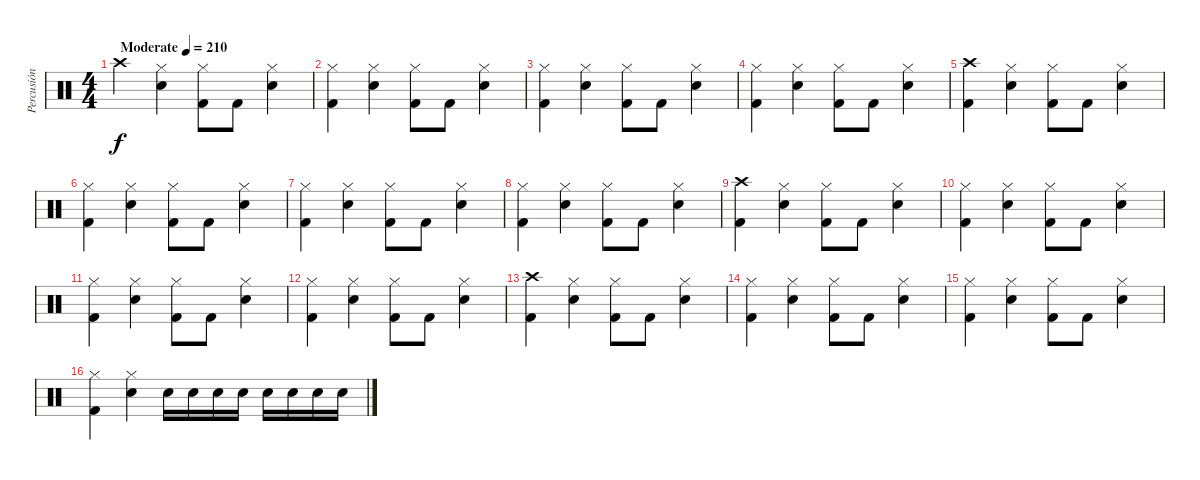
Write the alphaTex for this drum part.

\track ("Percusión" "Percusión") {instrument percussion}
\staff {score}
\articulation defaults
\ts (4 4)
\tempo (210 "Moderate")
\clef neutral
\ks c "Crash high (hit)".4{dy f}
("Hi-Hat (closed)" "Electric Snare (hit)").4 ("Hi-Hat (closed)" "Kick (hit) 2").8 "Kick (hit) 2".8 ("Hi-Hat (closed)" "Electric Snare (hit)").4 |
("Hi-Hat (closed)" "Kick (hit) 2").4 ("Hi-Hat (closed)" "Electric Snare (hit)").4 ("Hi-Hat (closed)" "Kick (hit) 2").8 "Kick (hit) 2".8 ("Hi-Hat (closed)" "Electric Snare (hit)").4 |
("Hi-Hat (closed)" "Kick (hit) 2").4 ("Hi-Hat (closed)" "Electric Snare (hit)").4 ("Hi-Hat (closed)" "Kick (hit) 2").8 "Kick (hit) 2".8 ("Hi-Hat (closed)" "Electric Snare (hit)").4 |
("Hi-Hat (closed)" "Kick (hit) 2").4 ("Hi-Hat (closed)" "Electric Snare (hit)").4 ("Hi-Hat (closed)" "Kick (hit) 2").8 "Kick (hit) 2".8 ("Hi-Hat (closed)" "Electric Snare (hit)").4 |
("Crash high (hit)" "Kick (hit) 2").4 ("Hi-Hat (closed)" "Electric Snare (hit)").4 ("Hi-Hat (closed)" "Kick (hit) 2").8 "Kick (hit) 2".8 ("Hi-Hat (closed)" "Electric Snare (hit)").4 |
("Hi-Hat (closed)" "Kick (hit) 2").4 ("Hi-Hat (closed)" "Electric Snare (hit)").4 ("Hi-Hat (closed)" "Kick (hit) 2").8 "Kick (hit) 2".8 ("Hi-Hat (closed)" "Electric Snare (hit)").4 |
("Hi-Hat (closed)" "Kick (hit) 2").4 ("Hi-Hat (closed)" "Electric Snare (hit)").4 ("Hi-Hat (closed)" "Kick (hit) 2").8 "Kick (hit) 2".8 ("Hi-Hat (closed)" "Electric Snare (hit)").4 |
("Hi-Hat (closed)" "Kick (hit) 2").4 ("Hi-Hat (closed)" "Electric Snare (hit)").4 ("Hi-Hat (closed)" "Kick (hit) 2").8 "Kick (hit) 2".8 ("Hi-Hat (closed)" "Electric Snare (hit)").4 |
("Crash high (hit)" "Kick (hit) 2").4 ("Hi-Hat (closed)" "Electric Snare (hit)").4 ("Hi-Hat (closed)" "Kick (hit) 2").8 "Kick (hit) 2".8 ("Hi-Hat (closed)" "Electric Snare (hit)").4 |
("Hi-Hat (closed)" "Kick (hit) 2").4 ("Hi-Hat (closed)" "Electric Snare (hit)").4 ("Hi-Hat (closed)" "Kick (hit) 2").8 "Kick (hit) 2".8 ("Hi-Hat (closed)" "Electric Snare (hit)").4 |
("Hi-Hat (closed)" "Kick (hit) 2").4 ("Hi-Hat (closed)" "Electric Snare (hit)").4 ("Hi-Hat (closed)" "Kick (hit) 2").8 "Kick (hit) 2".8 ("Hi-Hat (closed)" "Electric Snare (hit)").4 |
("Hi-Hat (closed)" "Kick (hit) 2").4 ("Hi-Hat (closed)" "Electric Snare (hit)").4 ("Hi-Hat (closed)" "Kick (hit) 2").8 "Kick (hit) 2".8 ("Hi-Hat (closed)" "Electric Snare (hit)").4 |
("Crash high (hit)" "Kick (hit) 2").4 ("Hi-Hat (closed)" "Electric Snare (hit)").4 ("Hi-Hat (closed)" "Kick (hit) 2").8 "Kick (hit) 2".8 ("Hi-Hat (closed)" "Electric Snare (hit)").4 |
("Hi-Hat (closed)" "Kick (hit) 2").4 ("Hi-Hat (closed)" "Electric Snare (hit)").4 ("Hi-Hat (closed)" "Kick (hit) 2").8 "Kick (hit) 2".8 ("Hi-Hat (closed)" "Electric Snare (hit)").4 |
("Hi-Hat (closed)" "Kick (hit) 2").4 ("Hi-Hat (closed)" "Electric Snare (hit)").4 ("Hi-Hat (closed)" "Kick (hit) 2").8 "Kick (hit) 2".8 ("Hi-Hat (closed)" "Electric Snare (hit)").4 |
("Hi-Hat (closed)" "Kick (hit) 2").4 ("Hi-Hat (closed)" "Electric Snare (hit)").4 "Electric Snare (hit)".16 "Electric Snare (hit)".16 "Electric Snare (hit)".16 "Electric Snare (hit)".16 "Electric Snare (hit)".16 "Electric Snare (hit)".16 "Electric Snare (hit)".16 "Electric Snare (hit)".16
